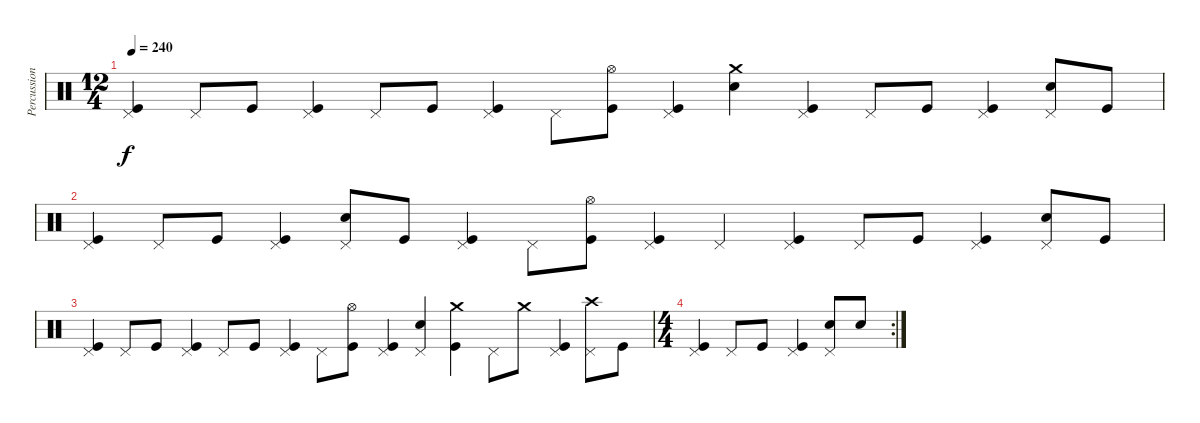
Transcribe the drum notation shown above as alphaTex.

\track ("Percussion" "Percussion") {instrument percussion}
\staff {score}
\articulation defaults
\ts (12 4)
\tempo 240
\clef neutral
\ks c
("Pedal Hi-Hat (hit)" "Kick (hit)").4{dy f} "Pedal Hi-Hat (hit)".8 "Kick (hit)".8 ("Pedal Hi-Hat (hit)" "Kick (hit)").4 "Pedal Hi-Hat (hit)".8 "Kick (hit)".8 ("Pedal Hi-Hat (hit)" "Kick (hit)").4 "Pedal Hi-Hat (hit)".8 ("Hi-Hat (open)" "Kick (hit)").8 ("Pedal Hi-Hat (hit)" "Kick (hit)").4 ("Crash medium (hit)" "Electric Snare (hit)").4 ("Pedal Hi-Hat (hit)" "Kick (hit)").4 "Pedal Hi-Hat (hit)".8 "Kick (hit)".8 ("Pedal Hi-Hat (hit)" "Kick (hit)").4 ("Pedal Hi-Hat (hit)" "Electric Snare (hit)").8 "Kick (hit)".8 |
("Pedal Hi-Hat (hit)" "Kick (hit)").4 "Pedal Hi-Hat (hit)".8 "Kick (hit)".8 ("Pedal Hi-Hat (hit)" "Kick (hit)").4 ("Pedal Hi-Hat (hit)" "Electric Snare (hit)").8 "Kick (hit)".8 ("Pedal Hi-Hat (hit)" "Kick (hit)").4 "Pedal Hi-Hat (hit)".8 ("Hi-Hat (open)" "Kick (hit)").8 ("Pedal Hi-Hat (hit)" "Kick (hit)").4 "Pedal Hi-Hat (hit)".4 ("Pedal Hi-Hat (hit)" "Kick (hit)").4 "Pedal Hi-Hat (hit)".8 "Kick (hit)".8 ("Pedal Hi-Hat (hit)" "Kick (hit)").4 ("Pedal Hi-Hat (hit)" "Electric Snare (hit)").8 "Kick (hit)".8 |
("Pedal Hi-Hat (hit)" "Kick (hit)").4 "Pedal Hi-Hat (hit)".8 "Kick (hit)".8 ("Pedal Hi-Hat (hit)" "Kick (hit)").4 "Pedal Hi-Hat (hit)".8 "Kick (hit)".8 ("Pedal Hi-Hat (hit)" "Kick (hit)").4 "Pedal Hi-Hat (hit)".8 ("Hi-Hat (open)" "Kick (hit)").8 ("Pedal Hi-Hat (hit)" "Kick (hit)").4 ("Pedal Hi-Hat (hit)" "Electric Snare (hit)").4 ("Crash medium (hit)" "Kick (hit)").4 "Pedal Hi-Hat (hit)".8 "Crash medium (hit)".8 ("Pedal Hi-Hat (hit)" "Kick (hit)").4 ("Pedal Hi-Hat (hit)" "Crash high (hit)").8 "Kick (hit)".8 |
\rc 2
\ts (4 4)
("Pedal Hi-Hat (hit)" "Kick (hit)").4 "Pedal Hi-Hat (hit)".8 "Kick (hit)".8 ("Pedal Hi-Hat (hit)" "Kick (hit)").4 ("Pedal Hi-Hat (hit)" "Electric Snare (hit)").8 "Electric Snare (hit)".8
